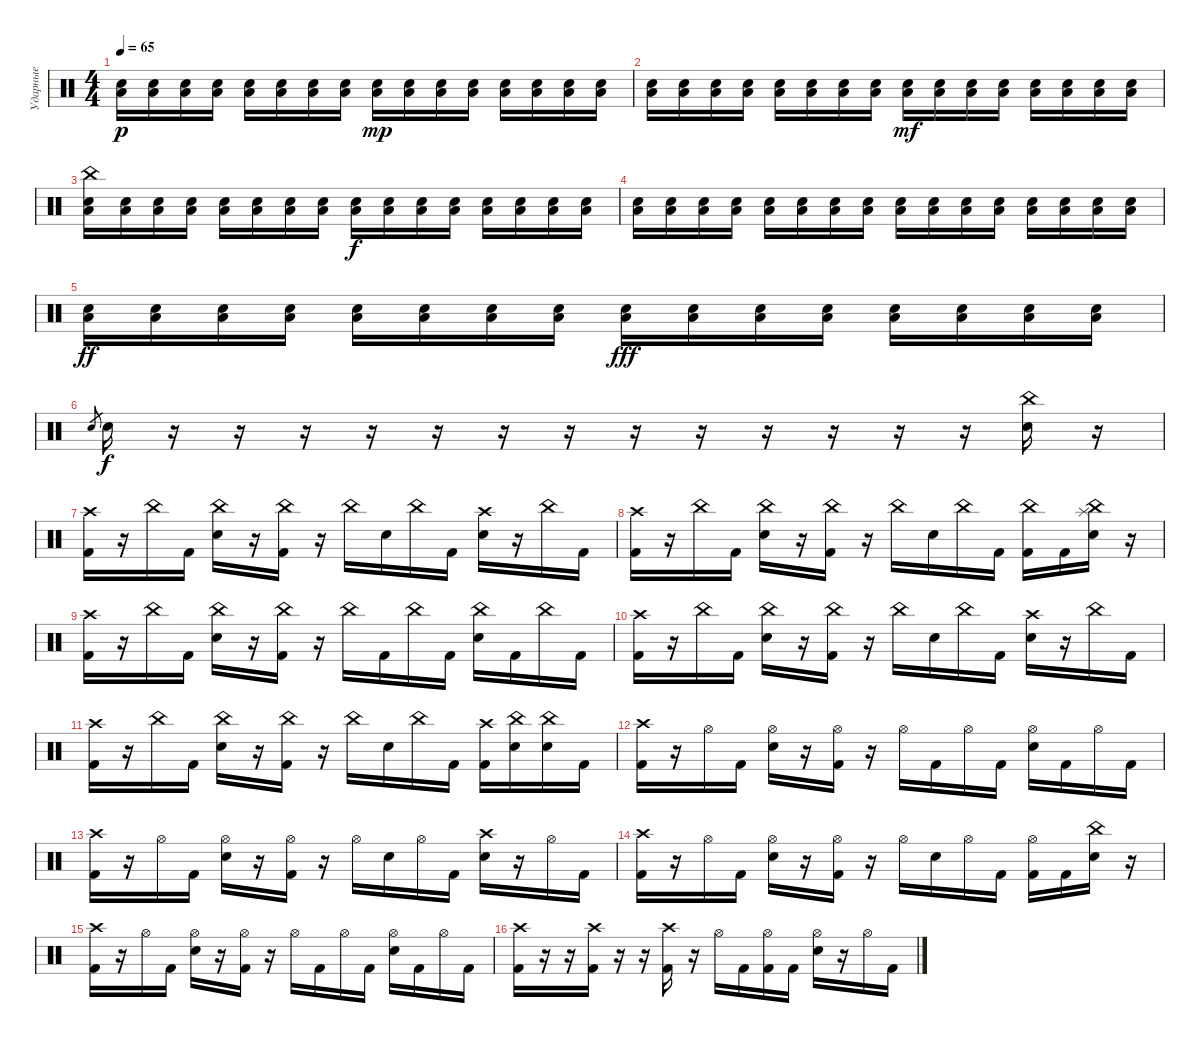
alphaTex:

\track ("Ударные" "Ударные") {instrument percussion}
\staff {score}
\articulation defaults
\ts (4 4)
\tempo 65
\clef neutral
\ks c
("Low Floor Tom (hit)" "Electric Snare (hit)").16{dy p} ("Low Floor Tom (hit)" "Electric Snare (hit)").16 ("Low Floor Tom (hit)" "Electric Snare (hit)").16 ("Low Floor Tom (hit)" "Electric Snare (hit)").16 ("Low Floor Tom (hit)" "Electric Snare (hit)").16 ("Low Floor Tom (hit)" "Electric Snare (hit)").16 ("Low Floor Tom (hit)" "Electric Snare (hit)").16 ("Low Floor Tom (hit)" "Electric Snare (hit)").16 ("Low Floor Tom (hit)" "Electric Snare (hit)").16{dy mp} ("Low Floor Tom (hit)" "Electric Snare (hit)").16 ("Low Floor Tom (hit)" "Electric Snare (hit)").16 ("Low Floor Tom (hit)" "Electric Snare (hit)").16 ("Low Floor Tom (hit)" "Electric Snare (hit)").16 ("Low Floor Tom (hit)" "Electric Snare (hit)").16 ("Low Floor Tom (hit)" "Electric Snare (hit)").16 ("Low Floor Tom (hit)" "Electric Snare (hit)").16 |
("Low Floor Tom (hit)" "Electric Snare (hit)").16 ("Low Floor Tom (hit)" "Electric Snare (hit)").16 ("Low Floor Tom (hit)" "Electric Snare (hit)").16 ("Low Floor Tom (hit)" "Electric Snare (hit)").16 ("Low Floor Tom (hit)" "Electric Snare (hit)").16 ("Low Floor Tom (hit)" "Electric Snare (hit)").16 ("Low Floor Tom (hit)" "Electric Snare (hit)").16 ("Low Floor Tom (hit)" "Electric Snare (hit)").16 ("Low Floor Tom (hit)" "Electric Snare (hit)").16{dy mf} ("Low Floor Tom (hit)" "Electric Snare (hit)").16 ("Low Floor Tom (hit)" "Electric Snare (hit)").16 ("Low Floor Tom (hit)" "Electric Snare (hit)").16 ("Low Floor Tom (hit)" "Electric Snare (hit)").16 ("Low Floor Tom (hit)" "Electric Snare (hit)").16 ("Low Floor Tom (hit)" "Electric Snare (hit)").16 ("Low Floor Tom (hit)" "Electric Snare (hit)").16 |
("China (hit)" "Low Floor Tom (hit)" "Electric Snare (hit)").16 ("Low Floor Tom (hit)" "Electric Snare (hit)").16 ("Low Floor Tom (hit)" "Electric Snare (hit)").16 ("Low Floor Tom (hit)" "Electric Snare (hit)").16 ("Low Floor Tom (hit)" "Electric Snare (hit)").16 ("Low Floor Tom (hit)" "Electric Snare (hit)").16 ("Low Floor Tom (hit)" "Electric Snare (hit)").16 ("Low Floor Tom (hit)" "Electric Snare (hit)").16 ("Low Floor Tom (hit)" "Electric Snare (hit)").16{dy f} ("Low Floor Tom (hit)" "Electric Snare (hit)").16 ("Low Floor Tom (hit)" "Electric Snare (hit)").16 ("Low Floor Tom (hit)" "Electric Snare (hit)").16 ("Low Floor Tom (hit)" "Electric Snare (hit)").16 ("Low Floor Tom (hit)" "Electric Snare (hit)").16 ("Low Floor Tom (hit)" "Electric Snare (hit)").16 ("Low Floor Tom (hit)" "Electric Snare (hit)").16 |
("Low Floor Tom (hit)" "Electric Snare (hit)").16 ("Low Floor Tom (hit)" "Electric Snare (hit)").16 ("Low Floor Tom (hit)" "Electric Snare (hit)").16 ("Low Floor Tom (hit)" "Electric Snare (hit)").16 ("Low Floor Tom (hit)" "Electric Snare (hit)").16 ("Low Floor Tom (hit)" "Electric Snare (hit)").16 ("Low Floor Tom (hit)" "Electric Snare (hit)").16 ("Low Floor Tom (hit)" "Electric Snare (hit)").16 ("Low Floor Tom (hit)" "Electric Snare (hit)").16 ("Low Floor Tom (hit)" "Electric Snare (hit)").16 ("Low Floor Tom (hit)" "Electric Snare (hit)").16 ("Low Floor Tom (hit)" "Electric Snare (hit)").16 ("Low Floor Tom (hit)" "Electric Snare (hit)").16 ("Low Floor Tom (hit)" "Electric Snare (hit)").16 ("Low Floor Tom (hit)" "Electric Snare (hit)").16 ("Low Floor Tom (hit)" "Electric Snare (hit)").16 |
("Low Floor Tom (hit)" "Electric Snare (hit)").16{dy ff} ("Low Floor Tom (hit)" "Electric Snare (hit)").16 ("Low Floor Tom (hit)" "Electric Snare (hit)").16 ("Low Floor Tom (hit)" "Electric Snare (hit)").16 ("Low Floor Tom (hit)" "Electric Snare (hit)").16 ("Low Floor Tom (hit)" "Electric Snare (hit)").16 ("Low Floor Tom (hit)" "Electric Snare (hit)").16 ("Low Floor Tom (hit)" "Electric Snare (hit)").16 ("Low Floor Tom (hit)" "Electric Snare (hit)").16{dy fff} ("Low Floor Tom (hit)" "Electric Snare (hit)").16 ("Low Floor Tom (hit)" "Electric Snare (hit)").16 ("Low Floor Tom (hit)" "Electric Snare (hit)").16 ("Low Floor Tom (hit)" "Electric Snare (hit)").16 ("Low Floor Tom (hit)" "Electric Snare (hit)").16 ("Low Floor Tom (hit)" "Electric Snare (hit)").16 ("Low Floor Tom (hit)" "Electric Snare (hit)").16 |
"Electric Snare (hit)".8{gr} "Electric Snare (hit)".16{dy f} r.16 r.16 r.16 r.16 r.16 r.16 r.16 r.16 r.16 r.16 r.16 r.16 r.16 ("China (hit)" "Electric Snare (hit)").16 r.16 |
("Crash high (hit)" "Kick (hit) 2").16 r.16 "China (hit)".16 "Kick (hit) 2".16 ("China (hit)" "Electric Snare (hit)").16 r.16 ("China (hit)" "Kick (hit) 2").16 r.16 "China (hit)".16 "Electric Snare (hit)".16 "China (hit)".16 "Kick (hit) 2".16 ("Crash high (hit)" "Electric Snare (hit)").16 r.16 "China (hit)".16 "Kick (hit) 2".16 |
("Crash high (hit)" "Kick (hit) 2").16 r.16 "China (hit)".16 "Kick (hit) 2".16 ("China (hit)" "Electric Snare (hit)").16 r.16 ("China (hit)" "Kick (hit) 2").16 r.16 "China (hit)".16 "Electric Snare (hit)".16 "China (hit)".16 "Kick (hit) 2".16 ("China (hit)" "Kick (hit) 2").16 "Kick (hit) 2".16 ("China (hit)" "Splash (hit)" "Electric Snare (hit)").16 r.16 |
("Crash high (hit)" "Kick (hit) 2").16 r.16 "China (hit)".16 "Kick (hit) 2".16 ("China (hit)" "Electric Snare (hit)").16 r.16 ("China (hit)" "Kick (hit) 2").16 r.16 "China (hit)".16 "Kick (hit) 2".16 "China (hit)".16 "Kick (hit) 2".16 ("China (hit)" "Electric Snare (hit)").16 "Kick (hit) 2".16 "China (hit)".16 "Kick (hit) 2".16 |
("Crash high (hit)" "Kick (hit) 2").16 r.16 "China (hit)".16 "Kick (hit) 2".16 ("China (hit)" "Electric Snare (hit)").16 r.16 ("China (hit)" "Kick (hit) 2").16 r.16 "China (hit)".16 "Electric Snare (hit)".16 "China (hit)".16 "Kick (hit) 2".16 ("Crash high (hit)" "Electric Snare (hit)").16 r.16 "China (hit)".16 "Kick (hit) 2".16 |
("Crash high (hit)" "Kick (hit) 2").16 r.16 "China (hit)".16 "Kick (hit) 2".16 ("China (hit)" "Electric Snare (hit)").16 r.16 ("China (hit)" "Kick (hit) 2").16 r.16 "China (hit)".16 "Electric Snare (hit)".16 "China (hit)".16 "Kick (hit) 2".16 ("Crash high (hit)" "Kick (hit) 2").16 ("China (hit)" "Electric Snare (hit)").16 ("China (hit)" "Electric Snare (hit)").16 "Kick (hit) 2".16 |
("Crash high (hit)" "Kick (hit) 2").16 r.16 "Hi-Hat (open)".16 "Kick (hit) 2".16 ("Hi-Hat (open)" "Electric Snare (hit)").16 r.16 ("Hi-Hat (open)" "Kick (hit) 2").16 r.16 "Hi-Hat (open)".16 "Kick (hit) 2".16 "Hi-Hat (open)".16 "Kick (hit) 2".16 ("Hi-Hat (open)" "Electric Snare (hit)").16 "Kick (hit) 2".16 "Hi-Hat (open)".16 "Kick (hit) 2".16 |
("Crash high (hit)" "Kick (hit) 2").16 r.16 "Hi-Hat (open)".16 "Kick (hit) 2".16 ("Hi-Hat (open)" "Electric Snare (hit)").16 r.16 ("Hi-Hat (open)" "Kick (hit) 2").16 r.16 "Hi-Hat (open)".16 "Electric Snare (hit)".16 "Hi-Hat (open)".16 "Kick (hit) 2".16 ("Crash high (hit)" "Electric Snare (hit)").16 r.16 "Hi-Hat (open)".16 "Kick (hit) 2".16 |
("Crash high (hit)" "Kick (hit) 2").16 r.16 "Hi-Hat (open)".16 "Kick (hit) 2".16 ("Hi-Hat (open)" "Electric Snare (hit)").16 r.16 ("Hi-Hat (open)" "Kick (hit) 2").16 r.16 "Hi-Hat (open)".16 "Electric Snare (hit)".16 "Hi-Hat (open)".16 "Kick (hit) 2".16 ("Hi-Hat (open)" "Kick (hit) 2").16 "Kick (hit) 2".16 ("China (hit)" "Electric Snare (hit)").16 r.16 |
("Crash high (hit)" "Kick (hit) 2").16 r.16 "Hi-Hat (open)".16 "Kick (hit) 2".16 ("Hi-Hat (open)" "Electric Snare (hit)").16 r.16 ("Hi-Hat (open)" "Kick (hit) 2").16 r.16 "Hi-Hat (open)".16 "Kick (hit) 2".16 "Hi-Hat (open)".16 "Kick (hit) 2".16 ("Hi-Hat (open)" "Electric Snare (hit)").16 "Kick (hit) 2".16 "Hi-Hat (open)".16 "Kick (hit) 2".16 |
("Crash high (hit)" "Kick (hit) 2").16 r.16 r.16 ("Crash high (hit)" "Kick (hit) 2").16 r.16 r.16 ("Crash high (hit)" "Kick (hit) 2").16 r.16 "Hi-Hat (open)".16 "Kick (hit) 2".16 ("Hi-Hat (open)" "Kick (hit) 2").16 "Kick (hit) 2".16 ("Hi-Hat (open)" "Electric Snare (hit)").16 r.16 "Hi-Hat (open)".16 "Kick (hit) 2".16
